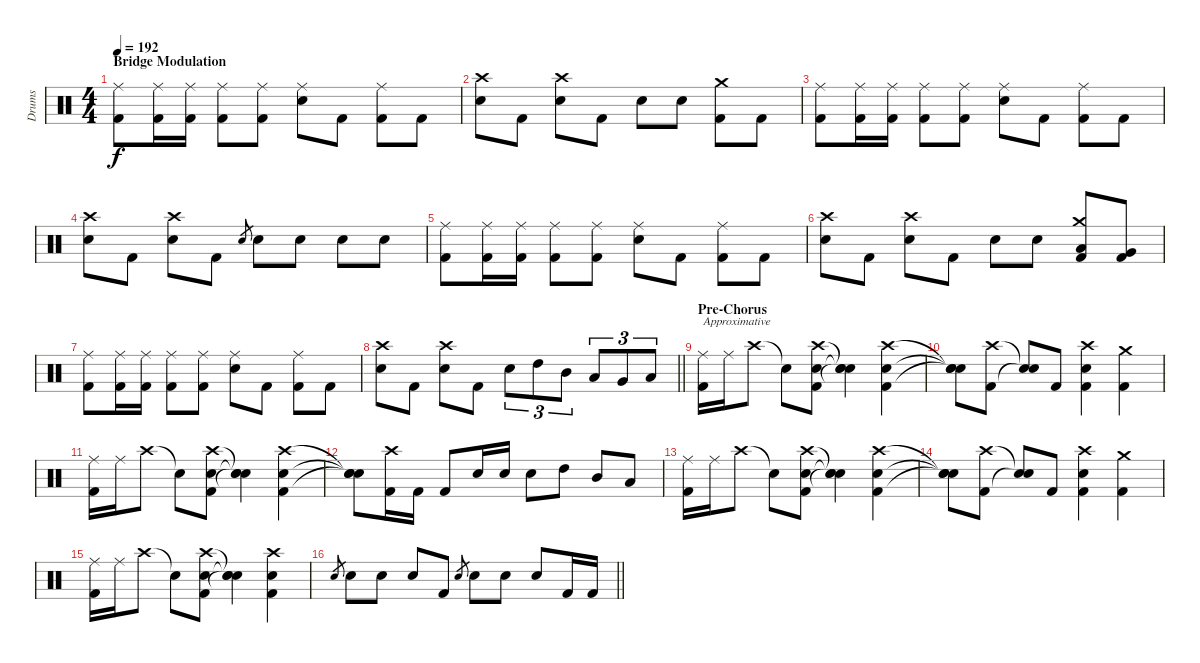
\track ("Drums" "Drums") {instrument percussion}
\staff {score}
\articulation defaults
\ts (4 4)
\section ("" "Bridge Modulation")
\tempo 192
\clef neutral
\ks c
("Ride (middle)" "Kick (hit) 2").8{dy f} ("Ride (middle)" "Kick (hit) 2").16 ("Ride (middle)" "Kick (hit) 2").16 ("Ride (middle)" "Kick (hit) 2").8 ("Ride (middle)" "Kick (hit) 2").8 ("Ride (middle)" "Snare (hit) 2").8 "Kick (hit) 2".8 ("Ride (middle)" "Kick (hit) 2").8 "Kick (hit) 2".8 |
("Crash high (hit)" "Snare (hit) 2").8 "Kick (hit) 2".8 ("Crash high (hit)" "Snare (hit) 2").8 "Kick (hit) 2".8 "Snare (hit) 2".8 "Snare (hit) 2".8 ("Crash medium (hit)" "Kick (hit) 2").8 "Kick (hit) 2".8 |
("Ride (middle)" "Kick (hit) 2").8 ("Ride (middle)" "Kick (hit) 2").16 ("Ride (middle)" "Kick (hit) 2").16 ("Ride (middle)" "Kick (hit) 2").8 ("Ride (middle)" "Kick (hit) 2").8 ("Ride (middle)" "Snare (hit) 2").8 "Kick (hit) 2".8 ("Ride (middle)" "Kick (hit) 2").8 "Kick (hit) 2".8 |
("Crash high (hit)" "Snare (hit) 2").8 "Kick (hit) 2".8 ("Crash high (hit)" "Snare (hit) 2").8 "Kick (hit) 2".8 "Snare (hit) 2".8{gr} "Snare (hit) 2".8 "Snare (hit) 2".8 "Snare (hit) 2".8 "Snare (hit) 2".8 |
("Ride (middle)" "Kick (hit) 2").8 ("Ride (middle)" "Kick (hit) 2").16 ("Ride (middle)" "Kick (hit) 2").16 ("Ride (middle)" "Kick (hit) 2").8 ("Ride (middle)" "Kick (hit) 2").8 ("Ride (middle)" "Snare (hit) 2").8 "Kick (hit) 2".8 ("Ride (middle)" "Kick (hit) 2").8 "Kick (hit) 2".8 |
("Crash high (hit)" "Snare (hit) 2").8 "Kick (hit) 2".8 ("Crash high (hit)" "Snare (hit) 2").8 "Kick (hit) 2".8 "Snare (hit) 2".8 "Snare (hit) 2".8 ("Crash medium (hit)" "Low Tom (hit)" "Kick (hit) 2").8 ("Very Low Tom (hit)" "Kick (hit) 2").8 |
("Ride (middle)" "Kick (hit) 2").8 ("Ride (middle)" "Kick (hit) 2").16 ("Ride (middle)" "Kick (hit) 2").16 ("Ride (middle)" "Kick (hit) 2").8 ("Ride (middle)" "Kick (hit) 2").8 ("Ride (middle)" "Snare (hit) 2").8 "Kick (hit) 2".8 ("Ride (middle)" "Kick (hit) 2").8 "Kick (hit) 2".8 |
\barLineRight lightlight
("Crash high (hit)" "Snare (hit) 2").8 "Kick (hit) 2".8 ("Crash high (hit)" "Snare (hit) 2").8 "Kick (hit) 2".8 "Snare (hit) 2".8{tu (3 2)} "High Tom (hit)".8{tu (3 2)} "Mid Tom (hit)".8{tu (3 2)} "Low Tom (hit)".8{tu (3 2)} "Very Low Tom (hit)".8{tu (3 2)} "Low Floor Tom (hit)".8{tu (3 2)} |
\section ("" "Pre-Chorus")
("Ride (middle)" "Kick (hit) 2").16{txt "Approximative "} "Ride (middle)".16 "Crash high (hit)".8 "Snare (hit)"{t}.8 ("Crash high (hit)" "Snare (hit) 2" "Kick (hit) 2").8 ("Snare (hit)"{t} "Snare (hit)"{t} "Snare (hit)"{t}).4 ("Crash high (hit)" "Snare (hit) 2" "Kick (hit) 2").4 |
("Snare (hit)"{t} "Snare (hit)"{t} "Snare (hit)"{t}).8 ("Crash high (hit)" "Kick (hit) 2").8 ("Snare (hit)"{t} "Snare (hit)"{t}).8 "Kick (hit) 2".8 ("Crash high (hit)" "Snare (hit) 2" "Kick (hit) 2").4 ("Crash medium (hit)" "Kick (hit) 2").4 |
("Ride (middle)" "Kick (hit) 2").16 "Ride (middle)".16 "Crash high (hit)".8 "Snare (hit)"{t}.8 ("Crash high (hit)" "Snare (hit) 2" "Kick (hit) 2").8 ("Snare (hit)"{t} "Snare (hit)"{t} "Snare (hit)"{t}).4 ("Crash high (hit)" "Snare (hit) 2" "Kick (hit) 2").4 |
("Snare (hit)"{t} "Snare (hit)"{t} "Snare (hit)"{t}).8 ("Crash high (hit)" "Kick (hit) 2").16 "Kick (hit) 2".16 "Kick (hit) 2".8 "Snare (hit) 2".16 "Snare (hit) 2".16 "Snare (hit) 2".8 "High Tom (hit)".8 "Mid Tom (hit)".8 "Low Tom (hit)".8 |
("Ride (middle)" "Kick (hit) 2").16 "Ride (middle)".16 "Crash high (hit)".8 "Snare (hit)"{t}.8 ("Crash high (hit)" "Snare (hit) 2" "Kick (hit) 2").8 ("Snare (hit)"{t} "Snare (hit)"{t} "Snare (hit)"{t}).4 ("Crash high (hit)" "Snare (hit) 2" "Kick (hit) 2").4 |
("Snare (hit)"{t} "Snare (hit)"{t} "Snare (hit)"{t}).8 ("Crash high (hit)" "Kick (hit) 2").8 ("Snare (hit)"{t} "Snare (hit)"{t}).8 "Kick (hit) 2".8 ("Crash high (hit)" "Snare (hit) 2" "Kick (hit) 2").4 ("Crash medium (hit)" "Kick (hit) 2").4 |
("Ride (middle)" "Kick (hit) 2").16 "Ride (middle)".16 "Crash high (hit)".8 "Snare (hit)"{t}.8 ("Crash high (hit)" "Snare (hit) 2" "Kick (hit) 2").8 ("Snare (hit)"{t} "Snare (hit)"{t} "Snare (hit)"{t}).4 ("Crash high (hit)" "Snare (hit) 2" "Kick (hit) 2").4 |
\barLineRight lightlight "Snare (hit) 2".8{gr} "Snare (hit) 2".8 "Snare (hit) 2".8 "Snare (hit) 2".8 "Kick (hit) 2".8 "Snare (hit) 2".8{gr} "Snare (hit) 2".8 "Snare (hit) 2".8 "Snare (hit) 2".8 "Kick (hit) 2".16 "Kick (hit) 2".16
